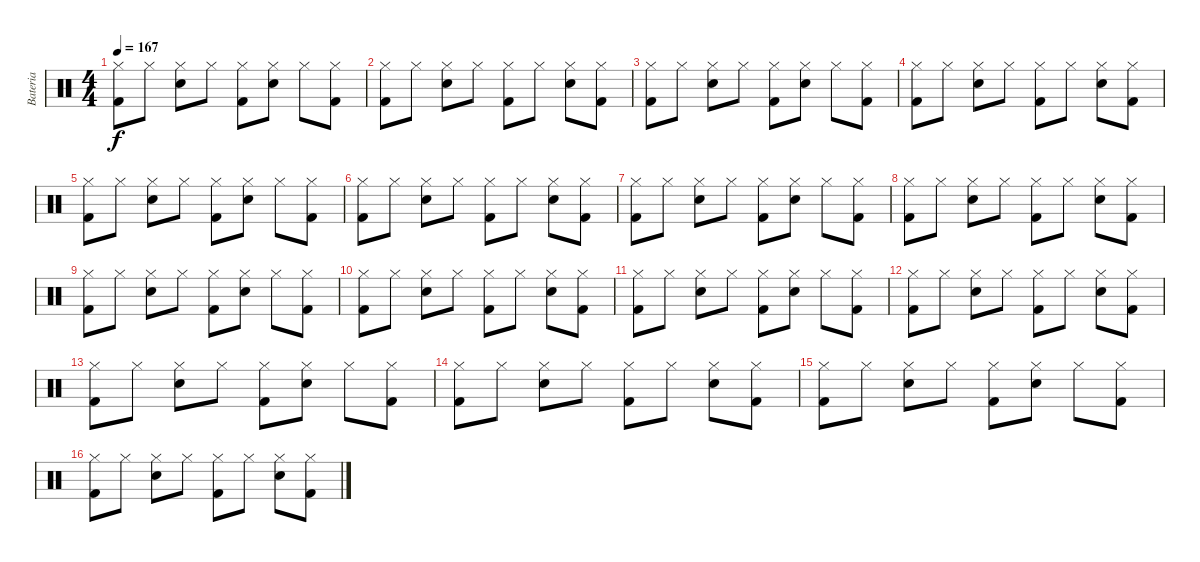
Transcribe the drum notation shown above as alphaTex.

\track ("Bateria" "Bateria") {instrument percussion}
\staff {score}
\articulation defaults
\ts (4 4)
\tempo 167
\clef neutral
\ks c
("Kick (hit) 2" "Hi-Hat (closed)").8{dy f} "Hi-Hat (closed)".8 ("Electric Snare (hit)" "Hi-Hat (closed)").8 "Hi-Hat (closed)".8 ("Kick (hit) 2" "Hi-Hat (closed)").8 ("Electric Snare (hit)" "Hi-Hat (closed)").8 "Hi-Hat (closed)".8 ("Kick (hit) 2" "Hi-Hat (closed)").8 |
("Kick (hit) 2" "Hi-Hat (closed)").8 "Hi-Hat (closed)".8 ("Electric Snare (hit)" "Hi-Hat (closed)").8 "Hi-Hat (closed)".8 ("Kick (hit) 2" "Hi-Hat (closed)").8 "Hi-Hat (closed)".8 ("Electric Snare (hit)" "Hi-Hat (closed)").8 ("Kick (hit) 2" "Hi-Hat (closed)").8 |
("Kick (hit) 2" "Hi-Hat (closed)").8 "Hi-Hat (closed)".8 ("Electric Snare (hit)" "Hi-Hat (closed)").8 "Hi-Hat (closed)".8 ("Kick (hit) 2" "Hi-Hat (closed)").8 ("Electric Snare (hit)" "Hi-Hat (closed)").8 "Hi-Hat (closed)".8 ("Kick (hit) 2" "Hi-Hat (closed)").8 |
("Kick (hit) 2" "Hi-Hat (closed)").8 "Hi-Hat (closed)".8 ("Electric Snare (hit)" "Hi-Hat (closed)").8 "Hi-Hat (closed)".8 ("Kick (hit) 2" "Hi-Hat (closed)").8 "Hi-Hat (closed)".8 ("Electric Snare (hit)" "Hi-Hat (closed)").8 ("Kick (hit) 2" "Hi-Hat (closed)").8 |
("Kick (hit) 2" "Hi-Hat (closed)").8 "Hi-Hat (closed)".8 ("Electric Snare (hit)" "Hi-Hat (closed)").8 "Hi-Hat (closed)".8 ("Kick (hit) 2" "Hi-Hat (closed)").8 ("Electric Snare (hit)" "Hi-Hat (closed)").8 "Hi-Hat (closed)".8 ("Kick (hit) 2" "Hi-Hat (closed)").8 |
("Kick (hit) 2" "Hi-Hat (closed)").8 "Hi-Hat (closed)".8 ("Electric Snare (hit)" "Hi-Hat (closed)").8 "Hi-Hat (closed)".8 ("Kick (hit) 2" "Hi-Hat (closed)").8 "Hi-Hat (closed)".8 ("Electric Snare (hit)" "Hi-Hat (closed)").8 ("Kick (hit) 2" "Hi-Hat (closed)").8 |
("Kick (hit) 2" "Hi-Hat (closed)").8 "Hi-Hat (closed)".8 ("Electric Snare (hit)" "Hi-Hat (closed)").8 "Hi-Hat (closed)".8 ("Kick (hit) 2" "Hi-Hat (closed)").8 ("Electric Snare (hit)" "Hi-Hat (closed)").8 "Hi-Hat (closed)".8 ("Kick (hit) 2" "Hi-Hat (closed)").8 |
("Kick (hit) 2" "Hi-Hat (closed)").8 "Hi-Hat (closed)".8 ("Electric Snare (hit)" "Hi-Hat (closed)").8 "Hi-Hat (closed)".8 ("Kick (hit) 2" "Hi-Hat (closed)").8 "Hi-Hat (closed)".8 ("Electric Snare (hit)" "Hi-Hat (closed)").8 ("Kick (hit) 2" "Hi-Hat (closed)").8 |
("Kick (hit) 2" "Hi-Hat (closed)").8 "Hi-Hat (closed)".8 ("Electric Snare (hit)" "Hi-Hat (closed)").8 "Hi-Hat (closed)".8 ("Kick (hit) 2" "Hi-Hat (closed)").8 ("Electric Snare (hit)" "Hi-Hat (closed)").8 "Hi-Hat (closed)".8 ("Kick (hit) 2" "Hi-Hat (closed)").8 |
("Kick (hit) 2" "Hi-Hat (closed)").8 "Hi-Hat (closed)".8 ("Electric Snare (hit)" "Hi-Hat (closed)").8 "Hi-Hat (closed)".8 ("Kick (hit) 2" "Hi-Hat (closed)").8 "Hi-Hat (closed)".8 ("Electric Snare (hit)" "Hi-Hat (closed)").8 ("Kick (hit) 2" "Hi-Hat (closed)").8 |
("Kick (hit) 2" "Hi-Hat (closed)").8 "Hi-Hat (closed)".8 ("Electric Snare (hit)" "Hi-Hat (closed)").8 "Hi-Hat (closed)".8 ("Kick (hit) 2" "Hi-Hat (closed)").8 ("Electric Snare (hit)" "Hi-Hat (closed)").8 "Hi-Hat (closed)".8 ("Kick (hit) 2" "Hi-Hat (closed)").8 |
("Kick (hit) 2" "Hi-Hat (closed)").8 "Hi-Hat (closed)".8 ("Electric Snare (hit)" "Hi-Hat (closed)").8 "Hi-Hat (closed)".8 ("Kick (hit) 2" "Hi-Hat (closed)").8 "Hi-Hat (closed)".8 ("Electric Snare (hit)" "Hi-Hat (closed)").8 ("Kick (hit) 2" "Hi-Hat (closed)").8 |
("Kick (hit) 2" "Hi-Hat (closed)").8 "Hi-Hat (closed)".8 ("Electric Snare (hit)" "Hi-Hat (closed)").8 "Hi-Hat (closed)".8 ("Kick (hit) 2" "Hi-Hat (closed)").8 ("Electric Snare (hit)" "Hi-Hat (closed)").8 "Hi-Hat (closed)".8 ("Kick (hit) 2" "Hi-Hat (closed)").8 |
("Kick (hit) 2" "Hi-Hat (closed)").8 "Hi-Hat (closed)".8 ("Electric Snare (hit)" "Hi-Hat (closed)").8 "Hi-Hat (closed)".8 ("Kick (hit) 2" "Hi-Hat (closed)").8 "Hi-Hat (closed)".8 ("Electric Snare (hit)" "Hi-Hat (closed)").8 ("Kick (hit) 2" "Hi-Hat (closed)").8 |
("Kick (hit) 2" "Hi-Hat (closed)").8 "Hi-Hat (closed)".8 ("Electric Snare (hit)" "Hi-Hat (closed)").8 "Hi-Hat (closed)".8 ("Kick (hit) 2" "Hi-Hat (closed)").8 ("Electric Snare (hit)" "Hi-Hat (closed)").8 "Hi-Hat (closed)".8 ("Kick (hit) 2" "Hi-Hat (closed)").8 |
("Kick (hit) 2" "Hi-Hat (closed)").8 "Hi-Hat (closed)".8 ("Electric Snare (hit)" "Hi-Hat (closed)").8 "Hi-Hat (closed)".8 ("Kick (hit) 2" "Hi-Hat (closed)").8 "Hi-Hat (closed)".8 ("Electric Snare (hit)" "Hi-Hat (closed)").8 ("Kick (hit) 2" "Hi-Hat (closed)").8
